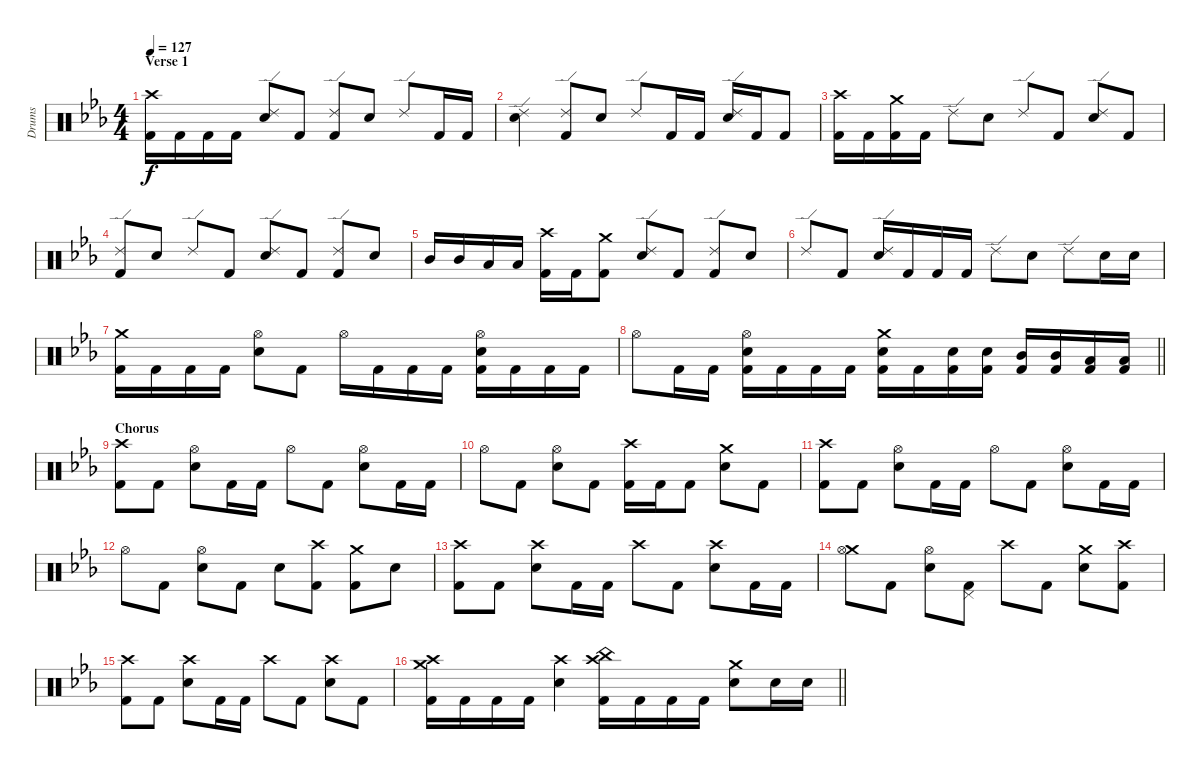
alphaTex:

\track ("Drums" "Drums") {instrument percussion}
\staff {score}
\articulation defaults
\ts (4 4)
\section ("" "Verse 1")
\tempo 127
\clef neutral
\ks cminor
("Crash high (hit)" "Kick (hit) 2").16{dy f} "Kick (hit) 2".16 "Kick (hit) 2".16 "Kick (hit) 2".16 ("Ride (edge) 2" "Snare (hit) 2").8 "Kick (hit) 2".8 ("Ride (edge) 2" "Kick (hit) 2").8 "Snare (hit) 2".8 "Ride (edge) 2".8 "Kick (hit) 2".16 "Kick (hit) 2".16 |
("Ride (edge) 2" "Snare (hit) 2").4 ("Ride (edge) 2" "Kick (hit) 2").8 "Snare (hit) 2".8 "Ride (edge) 2".8 "Kick (hit) 2".16 "Kick (hit) 2".16 ("Ride (edge) 2" "Snare (hit) 2").16 "Kick (hit) 2".16 "Kick (hit) 2".8 |
("Crash high (hit)" "Kick (hit) 2").16 "Kick (hit) 2".16 ("Crash medium (hit)" "Kick (hit) 2").16 "Kick (hit) 2".16 "Ride (edge) 2".8 "Snare (hit) 2".8 "Ride (edge) 2".8 "Kick (hit) 2".8 ("Ride (edge) 2" "Snare (hit) 2").8 "Kick (hit) 2".8 |
("Ride (edge) 2" "Kick (hit) 2").8 "Snare (hit) 2".8 "Ride (edge) 2".8 "Kick (hit) 2".8 ("Ride (edge) 2" "Snare (hit) 2").8 "Kick (hit) 2".8 ("Ride (edge) 2" "Kick (hit) 2").8 "Snare (hit) 2".8 |
"Mid Tom (hit)".16 "Mid Tom (hit)".16 "Low Tom (hit)".16 "Low Tom (hit)".16 ("Crash high (hit)" "Kick (hit) 2").16 "Kick (hit) 2".16 ("Crash medium (hit)" "Kick (hit) 2").8 ("Ride (edge) 2" "Snare (hit) 2").8 "Kick (hit) 2".8 ("Ride (edge) 2" "Kick (hit) 2").8 "Snare (hit) 2".8 |
"Ride (edge) 2".8 "Kick (hit) 2".8 ("Ride (edge) 2" "Snare (hit) 2").16 "Kick (hit) 2".16 "Kick (hit) 2".16 "Kick (hit) 2".16 "Ride (edge) 2".8 "Snare (hit) 2".8 "Ride (edge) 2".8 "Snare (hit) 2".16 "Snare (hit) 2".16 |
("Crash medium (hit)" "Kick (hit) 2").16 "Kick (hit) 2".16 "Kick (hit) 2".16 "Kick (hit) 2".16 ("Hi-Hat (open)" "Snare (hit) 2").8 "Kick (hit) 2".8 "Hi-Hat (open)".16 "Kick (hit) 2".16 "Kick (hit) 2".16 "Kick (hit) 2".16 ("Hi-Hat (open)" "Snare (hit) 2" "Kick (hit) 2").16 "Kick (hit) 2".16 "Kick (hit) 2".16 "Kick (hit) 2".16 |
\barLineRight lightlight "Hi-Hat (open)".8 "Kick (hit) 2".16 "Kick (hit) 2".16
("Hi-Hat (open)" "Snare (hit) 2" "Kick (hit) 2").16 "Kick (hit) 2".16 "Kick (hit) 2".16 "Kick (hit) 2".16 ("Crash medium (hit)" "Snare (hit) 2" "Kick (hit) 2").16 "Kick (hit) 2".16 ("Snare (hit) 2" "Kick (hit) 2").16 ("Snare (hit) 2" "Kick (hit) 2").16 ("Mid Tom (hit)" "Kick (hit) 2").16 ("Mid Tom (hit)" "Kick (hit) 2").16 ("Low Tom (hit)" "Kick (hit) 2").16 ("Low Tom (hit)" "Kick (hit) 2").16 |
\section ("" "Chorus")
("Crash high (hit)" "Kick (hit) 2").8 "Kick (hit) 2".8 ("Hi-Hat (open)" "Snare (hit) 2").8 "Kick (hit) 2".16 "Kick (hit) 2".16 "Hi-Hat (open)".8 "Kick (hit) 2".8 ("Hi-Hat (open)" "Snare (hit) 2").8 "Kick (hit) 2".16 "Kick (hit) 2".16 |
"Hi-Hat (open)".8 "Kick (hit) 2".8 ("Hi-Hat (open)" "Snare (hit) 2").8 "Kick (hit) 2".8 ("Crash high (hit)" "Kick (hit) 2").16 "Kick (hit) 2".16 "Kick (hit) 2".8 ("Crash medium (hit)" "Snare (hit) 2").8 "Kick (hit) 2".8 |
("Crash high (hit)" "Kick (hit) 2").8 "Kick (hit) 2".8 ("Hi-Hat (open)" "Snare (hit) 2").8 "Kick (hit) 2".16 "Kick (hit) 2".16 "Hi-Hat (open)".8 "Kick (hit) 2".8 ("Hi-Hat (open)" "Snare (hit) 2").8 "Kick (hit) 2".16 "Kick (hit) 2".16 |
"Hi-Hat (open)".8 "Kick (hit) 2".8 ("Hi-Hat (open)" "Snare (hit) 2").8 "Kick (hit) 2".8 "Snare (hit) 2".8 ("Crash high (hit)" "Kick (hit) 2").8 ("Crash medium (hit)" "Kick (hit) 2").8 "Snare (hit) 2".8 |
("Crash high (hit)" "Kick (hit) 2").8 "Kick (hit) 2".8 ("Crash high (hit)" "Snare (hit) 2").8 "Kick (hit) 2".16 "Kick (hit) 2".16 "Crash high (hit)".8 "Kick (hit) 2".8 ("Crash high (hit)" "Snare (hit) 2").8 "Kick (hit) 2".16 "Kick (hit) 2".16 |
("Crash medium (hit)" "Hi-Hat (open)").8 "Kick (hit) 2".8 ("Hi-Hat (open)" "Snare (hit) 2").8 ("Pedal Hi-Hat (hit)" "Kick (hit) 2").8 "Crash high (hit)".8 "Kick (hit) 2".8 ("Crash medium (hit)" "Snare (hit) 2").8 ("Crash high (hit)" "Kick (hit) 2").8 |
("Crash high (hit)" "Kick (hit) 2").8 "Kick (hit) 2".8 ("Crash high (hit)" "Snare (hit) 2").8 "Kick (hit) 2".16 "Kick (hit) 2".16 "Crash high (hit)".8 "Kick (hit) 2".8 ("Crash high (hit)" "Snare (hit) 2").8 "Kick (hit) 2".8 |
\barLineRight lightlight
("Crash medium (hit)" "Crash high (hit)" "Kick (hit) 2").16 "Kick (hit) 2".16 "Kick (hit) 2".16 "Kick (hit) 2".16 ("Crash high (hit)" "Snare (hit) 2").4 ("China (hit)" "Crash high (hit)" "Kick (hit) 2").16 "Kick (hit) 2".16 "Kick (hit) 2".16 "Kick (hit) 2".16 ("Crash medium (hit)" "Snare (hit) 2").8 "Snare (hit) 2".16 "Snare (hit) 2".16
